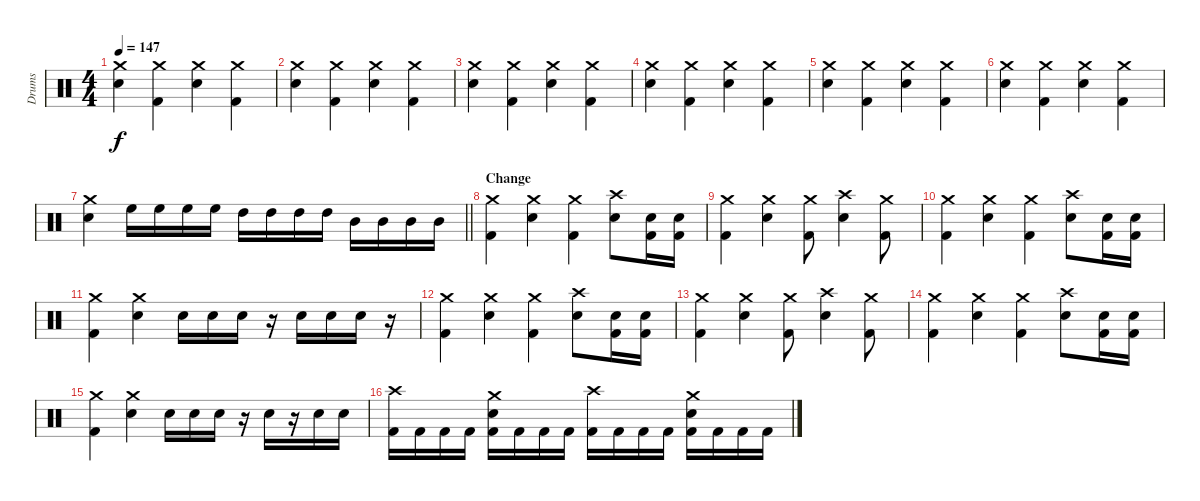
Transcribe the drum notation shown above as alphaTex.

\track ("Drums" "Drums") {instrument percussion}
\staff
\articulation defaults
\ts (4 4)
\tempo 147
\clef neutral
\ks c
("Crash medium (hit)" "Electric Snare (hit)").4{dy f} ("Crash medium (hit)" "Kick (hit) 2").4 ("Crash medium (hit)" "Electric Snare (hit)").4 ("Crash medium (hit)" "Kick (hit) 2").4 |
("Crash medium (hit)" "Electric Snare (hit)").4 ("Crash medium (hit)" "Kick (hit) 2").4 ("Crash medium (hit)" "Electric Snare (hit)").4 ("Crash medium (hit)" "Kick (hit) 2").4 |
("Crash medium (hit)" "Electric Snare (hit)").4 ("Crash medium (hit)" "Kick (hit) 2").4 ("Crash medium (hit)" "Electric Snare (hit)").4 ("Crash medium (hit)" "Kick (hit) 2").4 |
("Crash medium (hit)" "Electric Snare (hit)").4 ("Crash medium (hit)" "Kick (hit) 2").4 ("Crash medium (hit)" "Electric Snare (hit)").4 ("Crash medium (hit)" "Kick (hit) 2").4 |
("Crash medium (hit)" "Electric Snare (hit)").4 ("Crash medium (hit)" "Kick (hit) 2").4 ("Crash medium (hit)" "Electric Snare (hit)").4 ("Crash medium (hit)" "Kick (hit) 2").4 |
("Crash medium (hit)" "Electric Snare (hit)").4 ("Crash medium (hit)" "Kick (hit) 2").4 ("Crash medium (hit)" "Electric Snare (hit)").4 ("Crash medium (hit)" "Kick (hit) 2").4 |
\barLineRight lightlight
("Crash medium (hit)" "Electric Snare (hit)").4 "High Floor Tom (hit)".16 "High Floor Tom (hit)".16 "High Floor Tom (hit)".16 "High Floor Tom (hit)".16 "High Tom (hit)".16 "High Tom (hit)".16 "High Tom (hit)".16 "High Tom (hit)".16 "Mid Tom (hit)".16 "Mid Tom (hit)".16 "Mid Tom (hit)".16 "Mid Tom (hit)".16 |
\section ("" "Change")
("Crash medium (hit)" "Kick (hit) 2").4 ("Crash medium (hit)" "Electric Snare (hit)").4 ("Crash medium (hit)" "Kick (hit) 2").4 ("Crash high (hit)" "Electric Snare (hit)").8 ("Snare (hit) 2" "Kick (hit) 2").16 ("Snare (hit) 2" "Kick (hit) 2").16 |
("Crash medium (hit)" "Kick (hit) 2").4 ("Crash medium (hit)" "Electric Snare (hit)").4 ("Crash medium (hit)" "Kick (hit) 2").8 ("Crash high (hit)" "Electric Snare (hit)").4 ("Crash medium (hit)" "Kick (hit) 2").8 |
("Crash medium (hit)" "Kick (hit) 2").4 ("Crash medium (hit)" "Electric Snare (hit)").4 ("Crash medium (hit)" "Kick (hit) 2").4 ("Crash high (hit)" "Electric Snare (hit)").8 ("Snare (hit) 2" "Kick (hit) 2").16 ("Snare (hit) 2" "Kick (hit) 2").16 |
("Crash medium (hit)" "Kick (hit) 2").4 ("Crash medium (hit)" "Electric Snare (hit)").4 "Electric Snare (hit)".16 "Electric Snare (hit)".16 "Electric Snare (hit)".16 r.16 "Electric Snare (hit)".16 "Electric Snare (hit)".16 "Electric Snare (hit)".16 r.16 |
("Crash medium (hit)" "Kick (hit) 2").4 ("Crash medium (hit)" "Electric Snare (hit)").4 ("Crash medium (hit)" "Kick (hit) 2").4 ("Crash high (hit)" "Electric Snare (hit)").8 ("Snare (hit) 2" "Kick (hit) 2").16 ("Snare (hit) 2" "Kick (hit) 2").16 |
("Crash medium (hit)" "Kick (hit) 2").4 ("Crash medium (hit)" "Electric Snare (hit)").4 ("Crash medium (hit)" "Kick (hit) 2").8 ("Crash high (hit)" "Electric Snare (hit)").4 ("Crash medium (hit)" "Kick (hit) 2").8 |
("Crash medium (hit)" "Kick (hit) 2").4 ("Crash medium (hit)" "Electric Snare (hit)").4 ("Crash medium (hit)" "Kick (hit) 2").4 ("Crash high (hit)" "Electric Snare (hit)").8 ("Snare (hit) 2" "Kick (hit) 2").16 ("Snare (hit) 2" "Kick (hit) 2").16 |
("Crash medium (hit)" "Kick (hit) 2").4 ("Crash medium (hit)" "Electric Snare (hit)").4 "Electric Snare (hit)".16 "Electric Snare (hit)".16 "Electric Snare (hit)".16 r.16 "Electric Snare (hit)".16 r.16 "Electric Snare (hit)".16 "Electric Snare (hit)".16 |
("Crash high (hit)" "Kick (hit) 2").16 "Kick (hit) 2".16 "Kick (hit) 2".16 "Kick (hit) 2".16 ("Crash medium (hit)" "Kick (hit) 2" "Electric Snare (hit)").16 "Kick (hit) 2".16 "Kick (hit) 2".16 "Kick (hit) 2".16 ("Crash high (hit)" "Kick (hit) 2").16 "Kick (hit) 2".16 "Kick (hit) 2".16 "Kick (hit) 2".16 ("Crash medium (hit)" "Kick (hit) 2" "Electric Snare (hit)").16 "Kick (hit) 2".16 "Kick (hit) 2".16 "Kick (hit) 2".16
